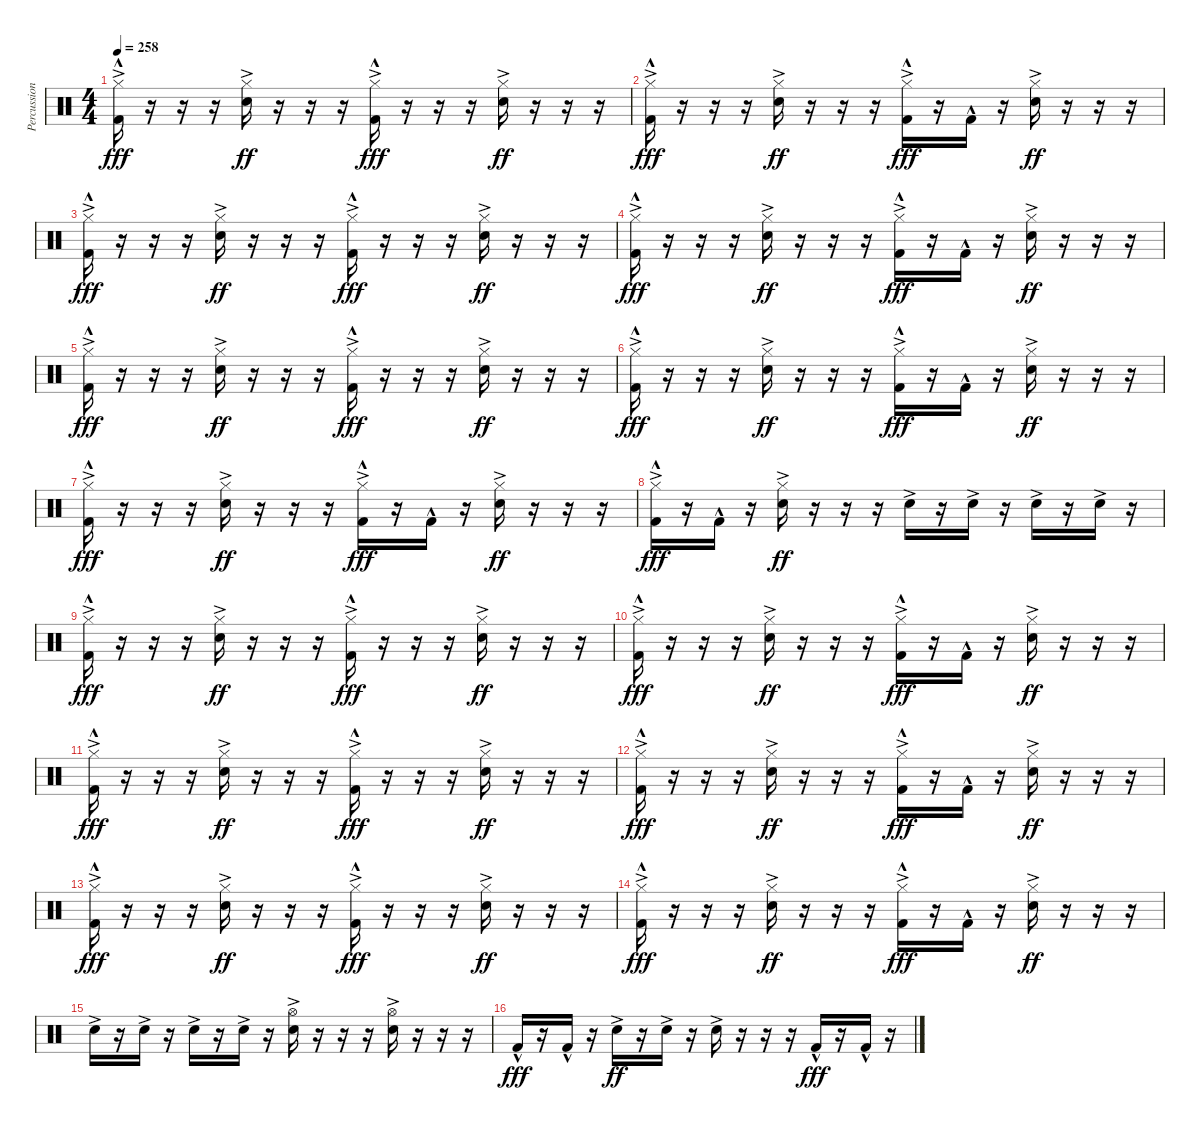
\track ("Percussion" "Percussion") {instrument percussion}
\staff {score}
\articulation defaults
\ts (4 4)
\tempo 258
\clef neutral
\ks c
("Hi-Hat (closed)"{ac} "Kick (hit) 2"{hac}).16{dy fff} r.16 r.16 r.16 ("Hi-Hat (closed)"{ac} "Snare (hit) 2"{ac}).16{dy ff} r.16 r.16 r.16 ("Hi-Hat (closed)"{ac} "Kick (hit) 2"{hac}).16{dy fff} r.16 r.16 r.16 ("Hi-Hat (closed)"{ac} "Snare (hit) 2"{ac}).16{dy ff} r.16 r.16 r.16 |
("Hi-Hat (closed)"{ac} "Kick (hit) 2"{hac}).16{dy fff} r.16 r.16 r.16 ("Hi-Hat (closed)"{ac} "Snare (hit) 2"{ac}).16{dy ff} r.16 r.16 r.16 ("Hi-Hat (closed)"{ac} "Kick (hit) 2"{hac}).16{dy fff} r.16 "Kick (hit) 2"{hac}.16 r.16 ("Hi-Hat (closed)"{ac} "Snare (hit) 2"{ac}).16{dy ff} r.16 r.16 r.16 |
("Hi-Hat (closed)"{ac} "Kick (hit) 2"{hac}).16{dy fff} r.16 r.16 r.16 ("Hi-Hat (closed)"{ac} "Snare (hit) 2"{ac}).16{dy ff} r.16 r.16 r.16 ("Hi-Hat (closed)"{ac} "Kick (hit) 2"{hac}).16{dy fff} r.16 r.16 r.16 ("Hi-Hat (closed)"{ac} "Snare (hit) 2"{ac}).16{dy ff} r.16 r.16 r.16 |
("Hi-Hat (closed)"{ac} "Kick (hit) 2"{hac}).16{dy fff} r.16 r.16 r.16 ("Hi-Hat (closed)"{ac} "Snare (hit) 2"{ac}).16{dy ff} r.16 r.16 r.16 ("Hi-Hat (closed)"{ac} "Kick (hit) 2"{hac}).16{dy fff} r.16 "Kick (hit) 2"{hac}.16 r.16 ("Hi-Hat (closed)"{ac} "Snare (hit) 2"{ac}).16{dy ff} r.16 r.16 r.16 |
("Hi-Hat (closed)"{ac} "Kick (hit) 2"{hac}).16{dy fff} r.16 r.16 r.16 ("Hi-Hat (closed)"{ac} "Snare (hit) 2"{ac}).16{dy ff} r.16 r.16 r.16 ("Hi-Hat (closed)"{ac} "Kick (hit) 2"{hac}).16{dy fff} r.16 r.16 r.16 ("Hi-Hat (closed)"{ac} "Snare (hit) 2"{ac}).16{dy ff} r.16 r.16 r.16 |
("Hi-Hat (closed)"{ac} "Kick (hit) 2"{hac}).16{dy fff} r.16 r.16 r.16 ("Hi-Hat (closed)"{ac} "Snare (hit) 2"{ac}).16{dy ff} r.16 r.16 r.16 ("Hi-Hat (closed)"{ac} "Kick (hit) 2"{hac}).16{dy fff} r.16 "Kick (hit) 2"{hac}.16 r.16 ("Hi-Hat (closed)"{ac} "Snare (hit) 2"{ac}).16{dy ff} r.16 r.16 r.16 |
("Hi-Hat (closed)"{ac} "Kick (hit) 2"{hac}).16{dy fff} r.16 r.16 r.16 ("Hi-Hat (closed)"{ac} "Snare (hit) 2"{ac}).16{dy ff} r.16 r.16 r.16 ("Hi-Hat (closed)"{ac} "Kick (hit) 2"{hac}).16{dy fff} r.16 "Kick (hit) 2"{hac}.16 r.16 ("Hi-Hat (closed)"{ac} "Snare (hit) 2"{ac}).16{dy ff} r.16 r.16 r.16 |
("Hi-Hat (closed)"{ac} "Kick (hit) 2"{hac}).16{dy fff} r.16 "Kick (hit) 2"{hac}.16 r.16 ("Hi-Hat (closed)"{ac} "Snare (hit) 2"{ac}).16{dy ff} r.16 r.16 r.16 "Snare (hit) 2"{ac}.16 r.16 "Snare (hit) 2"{ac}.16 r.16 "Snare (hit) 2"{ac}.16 r.16 "Snare (hit) 2"{ac}.16 r.16 |
("Hi-Hat (closed)"{ac} "Kick (hit) 2"{hac}).16{dy fff} r.16 r.16 r.16 ("Hi-Hat (closed)"{ac} "Snare (hit) 2"{ac}).16{dy ff} r.16 r.16 r.16 ("Hi-Hat (closed)"{ac} "Kick (hit) 2"{hac}).16{dy fff} r.16 r.16 r.16 ("Hi-Hat (closed)"{ac} "Snare (hit) 2"{ac}).16{dy ff} r.16 r.16 r.16 |
("Hi-Hat (closed)"{ac} "Kick (hit) 2"{hac}).16{dy fff} r.16 r.16 r.16 ("Hi-Hat (closed)"{ac} "Snare (hit) 2"{ac}).16{dy ff} r.16 r.16 r.16 ("Hi-Hat (closed)"{ac} "Kick (hit) 2"{hac}).16{dy fff} r.16 "Kick (hit) 2"{hac}.16 r.16 ("Hi-Hat (closed)"{ac} "Snare (hit) 2"{ac}).16{dy ff} r.16 r.16 r.16 |
("Hi-Hat (closed)"{ac} "Kick (hit) 2"{hac}).16{dy fff} r.16 r.16 r.16 ("Hi-Hat (closed)"{ac} "Snare (hit) 2"{ac}).16{dy ff} r.16 r.16 r.16 ("Hi-Hat (closed)"{ac} "Kick (hit) 2"{hac}).16{dy fff} r.16 r.16 r.16 ("Hi-Hat (closed)"{ac} "Snare (hit) 2"{ac}).16{dy ff} r.16 r.16 r.16 |
("Hi-Hat (closed)"{ac} "Kick (hit) 2"{hac}).16{dy fff} r.16 r.16 r.16 ("Hi-Hat (closed)"{ac} "Snare (hit) 2"{ac}).16{dy ff} r.16 r.16 r.16 ("Hi-Hat (closed)"{ac} "Kick (hit) 2"{hac}).16{dy fff} r.16 "Kick (hit) 2"{hac}.16 r.16 ("Hi-Hat (closed)"{ac} "Snare (hit) 2"{ac}).16{dy ff} r.16 r.16 r.16 |
("Hi-Hat (closed)"{ac} "Kick (hit) 2"{hac}).16{dy fff} r.16 r.16 r.16 ("Hi-Hat (closed)"{ac} "Snare (hit) 2"{ac}).16{dy ff} r.16 r.16 r.16 ("Hi-Hat (closed)"{ac} "Kick (hit) 2"{hac}).16{dy fff} r.16 r.16 r.16 ("Hi-Hat (closed)"{ac} "Snare (hit) 2"{ac}).16{dy ff} r.16 r.16 r.16 |
("Hi-Hat (closed)"{ac} "Kick (hit) 2"{hac}).16{dy fff} r.16 r.16 r.16 ("Hi-Hat (closed)"{ac} "Snare (hit) 2"{ac}).16{dy ff} r.16 r.16 r.16 ("Hi-Hat (closed)"{ac} "Kick (hit) 2"{hac}).16{dy fff} r.16 "Kick (hit) 2"{hac}.16 r.16 ("Hi-Hat (closed)"{ac} "Snare (hit) 2"{ac}).16{dy ff} r.16 r.16 r.16 |
"Snare (hit) 2"{ac}.16 r.16 "Snare (hit) 2"{ac}.16 r.16 "Snare (hit) 2"{ac}.16 r.16 "Snare (hit) 2"{ac}.16 r.16 ("Hi-Hat (open)"{ac} "Snare (hit) 2"{ac}).16 r.16 r.16 r.16 ("Hi-Hat (open)"{ac} "Snare (hit) 2"{ac}).16 r.16 r.16 r.16 |
"Kick (hit) 2"{hac}.16{dy fff} r.16 "Kick (hit) 2"{hac}.16 r.16 "Snare (hit) 2"{ac}.16{dy ff} r.16 "Snare (hit) 2"{ac}.16 r.16 "Snare (hit) 2"{ac}.16 r.16 r.16 r.16 "Kick (hit) 2"{hac}.16{dy fff} r.16 "Kick (hit) 2"{hac}.16 r.16
